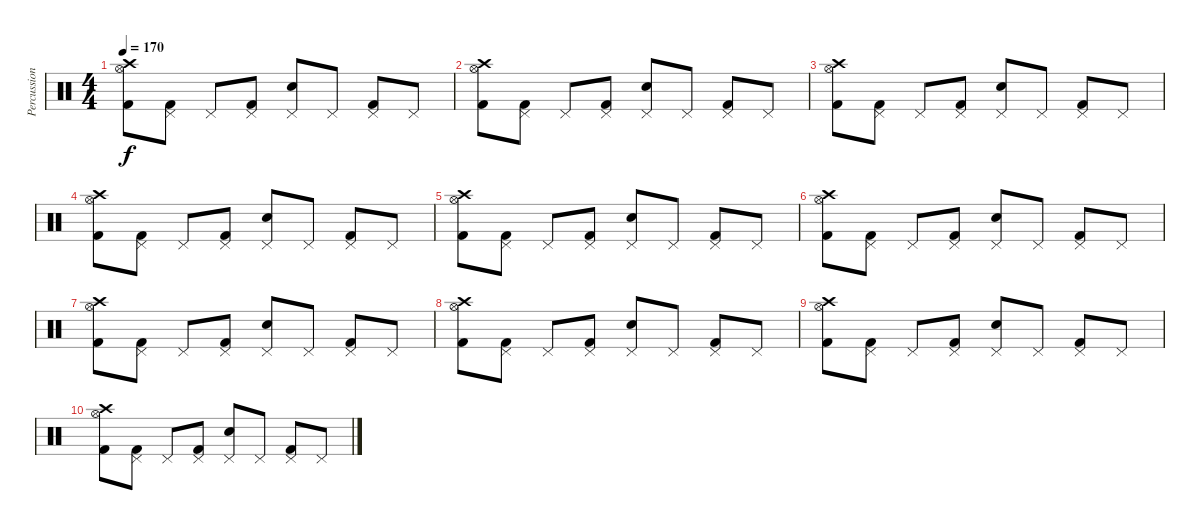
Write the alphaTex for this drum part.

\track ("Percussion" "Percussion") {instrument percussion}
\staff {score}
\articulation defaults
\ts (4 4)
\tempo 170
\clef neutral
\ks c
("Hi-Hat (open)" "Kick (hit) 2" "Crash high (hit)").8{dy f} ("Pedal Hi-Hat (hit)" "Kick (hit) 2").8 "Pedal Hi-Hat (hit)".8 ("Pedal Hi-Hat (hit)" "Kick (hit) 2").8 ("Pedal Hi-Hat (hit)" "Electric Snare (hit)").8 "Pedal Hi-Hat (hit)".8 ("Pedal Hi-Hat (hit)" "Kick (hit) 2").8 "Pedal Hi-Hat (hit)".8 |
("Hi-Hat (open)" "Kick (hit) 2" "Crash high (hit)").8 ("Pedal Hi-Hat (hit)" "Kick (hit) 2").8 "Pedal Hi-Hat (hit)".8 ("Pedal Hi-Hat (hit)" "Kick (hit) 2").8 ("Pedal Hi-Hat (hit)" "Electric Snare (hit)").8 "Pedal Hi-Hat (hit)".8 ("Pedal Hi-Hat (hit)" "Kick (hit) 2").8 "Pedal Hi-Hat (hit)".8 |
("Hi-Hat (open)" "Kick (hit) 2" "Crash high (hit)").8 ("Pedal Hi-Hat (hit)" "Kick (hit) 2").8 "Pedal Hi-Hat (hit)".8 ("Pedal Hi-Hat (hit)" "Kick (hit) 2").8 ("Pedal Hi-Hat (hit)" "Electric Snare (hit)").8 "Pedal Hi-Hat (hit)".8 ("Pedal Hi-Hat (hit)" "Kick (hit) 2").8 "Pedal Hi-Hat (hit)".8 |
("Hi-Hat (open)" "Kick (hit) 2" "Crash high (hit)").8 ("Pedal Hi-Hat (hit)" "Kick (hit) 2").8 "Pedal Hi-Hat (hit)".8 ("Pedal Hi-Hat (hit)" "Kick (hit) 2").8 ("Pedal Hi-Hat (hit)" "Electric Snare (hit)").8 "Pedal Hi-Hat (hit)".8 ("Pedal Hi-Hat (hit)" "Kick (hit) 2").8 "Pedal Hi-Hat (hit)".8 |
("Hi-Hat (open)" "Kick (hit) 2" "Crash high (hit)").8 ("Pedal Hi-Hat (hit)" "Kick (hit) 2").8 "Pedal Hi-Hat (hit)".8 ("Pedal Hi-Hat (hit)" "Kick (hit) 2").8 ("Pedal Hi-Hat (hit)" "Electric Snare (hit)").8 "Pedal Hi-Hat (hit)".8 ("Pedal Hi-Hat (hit)" "Kick (hit) 2").8 "Pedal Hi-Hat (hit)".8 |
("Hi-Hat (open)" "Kick (hit) 2" "Crash high (hit)").8 ("Pedal Hi-Hat (hit)" "Kick (hit) 2").8 "Pedal Hi-Hat (hit)".8 ("Pedal Hi-Hat (hit)" "Kick (hit) 2").8 ("Pedal Hi-Hat (hit)" "Electric Snare (hit)").8 "Pedal Hi-Hat (hit)".8 ("Pedal Hi-Hat (hit)" "Kick (hit) 2").8 "Pedal Hi-Hat (hit)".8 |
("Hi-Hat (open)" "Kick (hit) 2" "Crash high (hit)").8 ("Pedal Hi-Hat (hit)" "Kick (hit) 2").8 "Pedal Hi-Hat (hit)".8 ("Pedal Hi-Hat (hit)" "Kick (hit) 2").8 ("Pedal Hi-Hat (hit)" "Electric Snare (hit)").8 "Pedal Hi-Hat (hit)".8 ("Pedal Hi-Hat (hit)" "Kick (hit) 2").8 "Pedal Hi-Hat (hit)".8 |
("Hi-Hat (open)" "Kick (hit) 2" "Crash high (hit)").8 ("Pedal Hi-Hat (hit)" "Kick (hit) 2").8 "Pedal Hi-Hat (hit)".8 ("Pedal Hi-Hat (hit)" "Kick (hit) 2").8 ("Pedal Hi-Hat (hit)" "Electric Snare (hit)").8 "Pedal Hi-Hat (hit)".8 ("Pedal Hi-Hat (hit)" "Kick (hit) 2").8 "Pedal Hi-Hat (hit)".8 |
("Hi-Hat (open)" "Kick (hit) 2" "Crash high (hit)").8 ("Pedal Hi-Hat (hit)" "Kick (hit) 2").8 "Pedal Hi-Hat (hit)".8 ("Pedal Hi-Hat (hit)" "Kick (hit) 2").8 ("Pedal Hi-Hat (hit)" "Electric Snare (hit)").8 "Pedal Hi-Hat (hit)".8 ("Pedal Hi-Hat (hit)" "Kick (hit) 2").8 "Pedal Hi-Hat (hit)".8 |
("Hi-Hat (open)" "Kick (hit) 2" "Crash high (hit)").8 ("Pedal Hi-Hat (hit)" "Kick (hit) 2").8 "Pedal Hi-Hat (hit)".8 ("Pedal Hi-Hat (hit)" "Kick (hit) 2").8 ("Pedal Hi-Hat (hit)" "Electric Snare (hit)").8 "Pedal Hi-Hat (hit)".8 ("Pedal Hi-Hat (hit)" "Kick (hit) 2").8 "Pedal Hi-Hat (hit)".8
